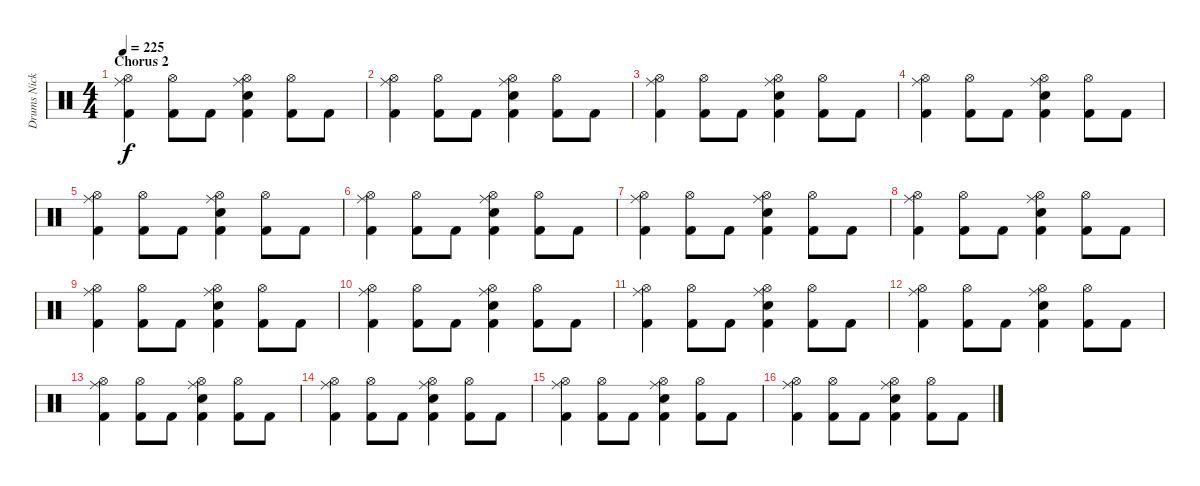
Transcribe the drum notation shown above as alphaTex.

\track ("Drums Nicko McBrain" "Drums Nick") {instrument percussion}
\staff {score}
\articulation defaults
\ts (4 4)
\section ("" "Chorus 2")
\tempo 225
\clef neutral
\ks c
("Hi-Hat (open)" "Ride (middle)" "Kick (hit) 2").4{dy f} ("Hi-Hat (open)" "Kick (hit) 2").8 "Kick (hit) 2".8 ("Hi-Hat (open)" "Snare (hit) 2" "Ride (middle)" "Kick (hit) 2").4 ("Hi-Hat (open)" "Kick (hit) 2").8 "Kick (hit) 2".8 |
("Hi-Hat (open)" "Ride (middle)" "Kick (hit) 2").4 ("Hi-Hat (open)" "Kick (hit) 2").8 "Kick (hit) 2".8 ("Hi-Hat (open)" "Snare (hit) 2" "Ride (middle)" "Kick (hit) 2").4 ("Hi-Hat (open)" "Kick (hit) 2").8 "Kick (hit) 2".8 |
("Hi-Hat (open)" "Ride (middle)" "Kick (hit) 2").4 ("Hi-Hat (open)" "Kick (hit) 2").8 "Kick (hit) 2".8 ("Hi-Hat (open)" "Snare (hit) 2" "Ride (middle)" "Kick (hit) 2").4 ("Hi-Hat (open)" "Kick (hit) 2").8 "Kick (hit) 2".8 |
("Hi-Hat (open)" "Ride (middle)" "Kick (hit) 2").4 ("Hi-Hat (open)" "Kick (hit) 2").8 "Kick (hit) 2".8 ("Hi-Hat (open)" "Snare (hit) 2" "Ride (middle)" "Kick (hit) 2").4 ("Hi-Hat (open)" "Kick (hit) 2").8 "Kick (hit) 2".8 |
("Hi-Hat (open)" "Ride (middle)" "Kick (hit) 2").4 ("Hi-Hat (open)" "Kick (hit) 2").8 "Kick (hit) 2".8 ("Hi-Hat (open)" "Snare (hit) 2" "Ride (middle)" "Kick (hit) 2").4 ("Hi-Hat (open)" "Kick (hit) 2").8 "Kick (hit) 2".8 |
("Hi-Hat (open)" "Ride (middle)" "Kick (hit) 2").4 ("Hi-Hat (open)" "Kick (hit) 2").8 "Kick (hit) 2".8 ("Hi-Hat (open)" "Snare (hit) 2" "Ride (middle)" "Kick (hit) 2").4 ("Hi-Hat (open)" "Kick (hit) 2").8 "Kick (hit) 2".8 |
("Hi-Hat (open)" "Ride (middle)" "Kick (hit) 2").4 ("Hi-Hat (open)" "Kick (hit) 2").8 "Kick (hit) 2".8 ("Hi-Hat (open)" "Snare (hit) 2" "Ride (middle)" "Kick (hit) 2").4 ("Hi-Hat (open)" "Kick (hit) 2").8 "Kick (hit) 2".8 |
("Hi-Hat (open)" "Ride (middle)" "Kick (hit) 2").4 ("Hi-Hat (open)" "Kick (hit) 2").8 "Kick (hit) 2".8 ("Hi-Hat (open)" "Snare (hit) 2" "Ride (middle)" "Kick (hit) 2").4 ("Hi-Hat (open)" "Kick (hit) 2").8 "Kick (hit) 2".8 |
("Hi-Hat (open)" "Ride (middle)" "Kick (hit) 2").4 ("Hi-Hat (open)" "Kick (hit) 2").8 "Kick (hit) 2".8 ("Hi-Hat (open)" "Snare (hit) 2" "Ride (middle)" "Kick (hit) 2").4 ("Hi-Hat (open)" "Kick (hit) 2").8 "Kick (hit) 2".8 |
("Hi-Hat (open)" "Ride (middle)" "Kick (hit) 2").4 ("Hi-Hat (open)" "Kick (hit) 2").8 "Kick (hit) 2".8 ("Hi-Hat (open)" "Snare (hit) 2" "Ride (middle)" "Kick (hit) 2").4 ("Hi-Hat (open)" "Kick (hit) 2").8 "Kick (hit) 2".8 |
("Hi-Hat (open)" "Ride (middle)" "Kick (hit) 2").4 ("Hi-Hat (open)" "Kick (hit) 2").8 "Kick (hit) 2".8 ("Hi-Hat (open)" "Snare (hit) 2" "Ride (middle)" "Kick (hit) 2").4 ("Hi-Hat (open)" "Kick (hit) 2").8 "Kick (hit) 2".8 |
("Hi-Hat (open)" "Ride (middle)" "Kick (hit) 2").4 ("Hi-Hat (open)" "Kick (hit) 2").8 "Kick (hit) 2".8 ("Hi-Hat (open)" "Snare (hit) 2" "Ride (middle)" "Kick (hit) 2").4 ("Hi-Hat (open)" "Kick (hit) 2").8 "Kick (hit) 2".8 |
("Hi-Hat (open)" "Ride (middle)" "Kick (hit) 2").4 ("Hi-Hat (open)" "Kick (hit) 2").8 "Kick (hit) 2".8 ("Hi-Hat (open)" "Snare (hit) 2" "Ride (middle)" "Kick (hit) 2").4 ("Hi-Hat (open)" "Kick (hit) 2").8 "Kick (hit) 2".8 |
("Hi-Hat (open)" "Ride (middle)" "Kick (hit) 2").4 ("Hi-Hat (open)" "Kick (hit) 2").8 "Kick (hit) 2".8 ("Hi-Hat (open)" "Snare (hit) 2" "Ride (middle)" "Kick (hit) 2").4 ("Hi-Hat (open)" "Kick (hit) 2").8 "Kick (hit) 2".8 |
("Hi-Hat (open)" "Ride (middle)" "Kick (hit) 2").4 ("Hi-Hat (open)" "Kick (hit) 2").8 "Kick (hit) 2".8 ("Hi-Hat (open)" "Snare (hit) 2" "Ride (middle)" "Kick (hit) 2").4 ("Hi-Hat (open)" "Kick (hit) 2").8 "Kick (hit) 2".8 |
("Hi-Hat (open)" "Ride (middle)" "Kick (hit) 2").4 ("Hi-Hat (open)" "Kick (hit) 2").8 "Kick (hit) 2".8 ("Hi-Hat (open)" "Snare (hit) 2" "Ride (middle)" "Kick (hit) 2").4 ("Hi-Hat (open)" "Kick (hit) 2").8 "Kick (hit) 2".8
